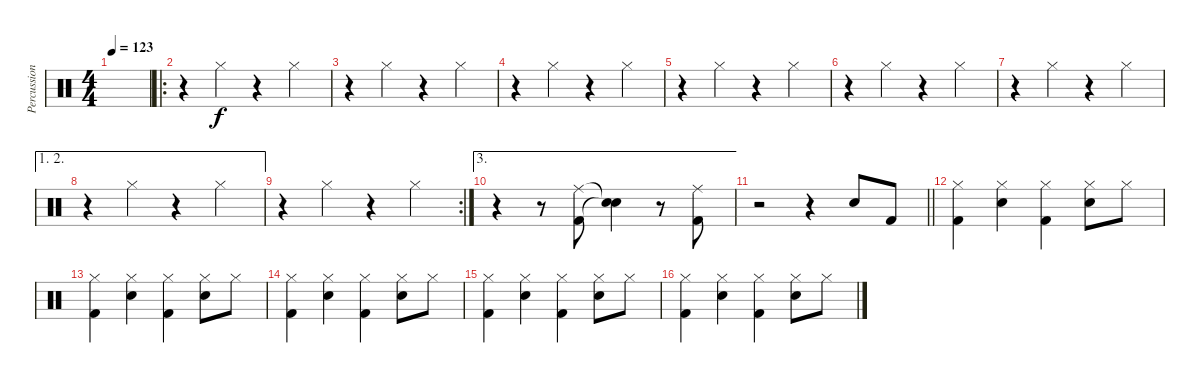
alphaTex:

\track ("Percussions" "Percussion") {instrument percussion}
\staff {score}
\articulation defaults
\ts (4 4)
\tempo 123
\clef neutral
\ks c
|
\ro
r.4 "Hi-Hat (closed)".4 r.4 "Hi-Hat (closed)".4 |
r.4 "Hi-Hat (closed)".4 r.4 "Hi-Hat (closed)".4 |
r.4 "Hi-Hat (closed)".4 r.4 "Hi-Hat (closed)".4 |
r.4 "Hi-Hat (closed)".4 r.4 "Hi-Hat (closed)".4 |
r.4 "Hi-Hat (closed)".4 r.4 "Hi-Hat (closed)".4 |
r.4 "Hi-Hat (closed)".4 r.4 "Hi-Hat (closed)".4 |
\ae (1 2)
r.4 "Hi-Hat (closed)".4 r.4 "Hi-Hat (closed)".4 |
\rc 2
r.4 "Hi-Hat (closed)".4 r.4 "Hi-Hat (closed)".4 |
\ae 3
r.4 r.8 ("Ride (middle)" "Kick (hit) 2").8 ("Snare (hit)"{t} "Snare (hit)"{t}).4 r.8 ("Ride (middle)" "Kick (hit) 2").8 |
\barLineRight lightlight
r.2 r.4 "Snare (hit) 2".8 "Kick (hit) 2".8 |
("Hi-Hat (closed)" "Kick (hit) 2").4 ("Hi-Hat (closed)" "Snare (hit) 2").4 ("Hi-Hat (closed)" "Kick (hit) 2").4 ("Hi-Hat (closed)" "Snare (hit) 2").8 "Hi-Hat (closed)".8 |
("Hi-Hat (closed)" "Kick (hit) 2").4 ("Hi-Hat (closed)" "Snare (hit) 2").4 ("Hi-Hat (closed)" "Kick (hit) 2").4 ("Hi-Hat (closed)" "Snare (hit) 2").8 "Hi-Hat (closed)".8 |
("Hi-Hat (closed)" "Kick (hit) 2").4 ("Hi-Hat (closed)" "Snare (hit) 2").4 ("Hi-Hat (closed)" "Kick (hit) 2").4 ("Hi-Hat (closed)" "Snare (hit) 2").8 "Hi-Hat (closed)".8 |
("Hi-Hat (closed)" "Kick (hit) 2").4 ("Hi-Hat (closed)" "Snare (hit) 2").4 ("Hi-Hat (closed)" "Kick (hit) 2").4 ("Hi-Hat (closed)" "Snare (hit) 2").8 "Hi-Hat (closed)".8 |
("Hi-Hat (closed)" "Kick (hit) 2").4 ("Hi-Hat (closed)" "Snare (hit) 2").4 ("Hi-Hat (closed)" "Kick (hit) 2").4 ("Hi-Hat (closed)" "Snare (hit) 2").8 "Hi-Hat (closed)".8
